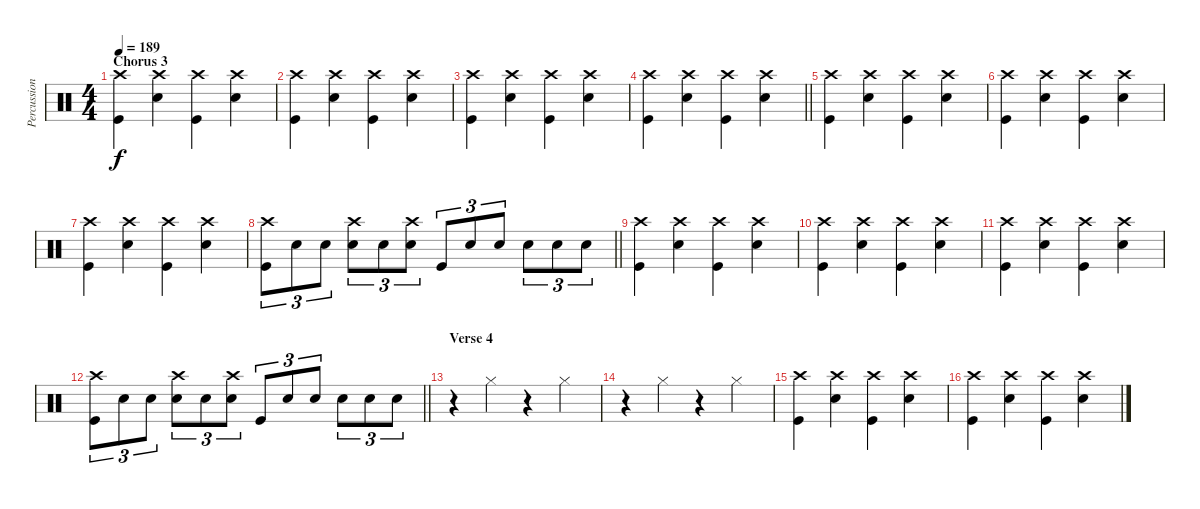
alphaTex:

\track ("Percussions" "Percussion") {instrument percussion}
\staff {score}
\articulation defaults
\ts (4 4)
\section ("" "Chorus 3")
\tempo 189
\clef neutral
\ks c
("Crash high (hit)" "Kick (hit)").4{dy f} ("Crash high (hit)" "Snare (hit) 2").4 ("Crash high (hit)" "Kick (hit)").4 ("Crash high (hit)" "Snare (hit) 2").4 |
("Crash high (hit)" "Kick (hit)").4 ("Crash high (hit)" "Snare (hit) 2").4 ("Crash high (hit)" "Kick (hit)").4 ("Crash high (hit)" "Snare (hit) 2").4 |
("Crash high (hit)" "Kick (hit)").4 ("Crash high (hit)" "Snare (hit) 2").4 ("Crash high (hit)" "Kick (hit)").4 ("Crash high (hit)" "Snare (hit) 2").4 |
\barLineRight lightlight
("Crash high (hit)" "Kick (hit)").4 ("Crash high (hit)" "Snare (hit) 2").4 ("Crash high (hit)" "Kick (hit)").4 ("Crash high (hit)" "Snare (hit) 2").4 |
("Crash high (hit)" "Kick (hit)").4 ("Crash high (hit)" "Snare (hit) 2").4 ("Crash high (hit)" "Kick (hit)").4 ("Crash high (hit)" "Snare (hit) 2").4 |
("Crash high (hit)" "Kick (hit)").4 ("Crash high (hit)" "Snare (hit) 2").4 ("Crash high (hit)" "Kick (hit)").4 ("Crash high (hit)" "Snare (hit) 2").4 |
("Crash high (hit)" "Kick (hit)").4 ("Crash high (hit)" "Snare (hit) 2").4 ("Crash high (hit)" "Kick (hit)").4 ("Crash high (hit)" "Snare (hit) 2").4 |
\barLineRight lightlight
("Crash high (hit)" "Kick (hit)").8{tu (3 2)} "Snare (hit) 2".8{tu (3 2)} "Snare (hit) 2".8{tu (3 2)} ("Crash high (hit)" "Snare (hit) 2").8{tu (3 2)} "Snare (hit) 2".8{tu (3 2)} ("Crash high (hit)" "Snare (hit) 2").8{tu (3 2)} "Kick (hit)".8{tu (3 2)} "Snare (hit) 2".8{tu (3 2)} "Snare (hit) 2".8{tu (3 2)} "Snare (hit) 2".8{tu (3 2)} "Snare (hit) 2".8{tu (3 2)} "Snare (hit) 2".8{tu (3 2)} |
("Crash high (hit)" "Kick (hit)").4 ("Crash high (hit)" "Snare (hit) 2").4 ("Crash high (hit)" "Kick (hit)").4 ("Crash high (hit)" "Snare (hit) 2").4 |
("Crash high (hit)" "Kick (hit)").4 ("Crash high (hit)" "Snare (hit) 2").4 ("Crash high (hit)" "Kick (hit)").4 ("Crash high (hit)" "Snare (hit) 2").4 |
("Crash high (hit)" "Kick (hit)").4 ("Crash high (hit)" "Snare (hit) 2").4 ("Crash high (hit)" "Kick (hit)").4 ("Crash high (hit)" "Snare (hit) 2").4 |
\barLineRight lightlight
("Crash high (hit)" "Kick (hit)").8{tu (3 2)} "Snare (hit) 2".8{tu (3 2)} "Snare (hit) 2".8{tu (3 2)} ("Crash high (hit)" "Snare (hit) 2").8{tu (3 2)} "Snare (hit) 2".8{tu (3 2)} ("Crash high (hit)" "Snare (hit) 2").8{tu (3 2)} "Kick (hit)".8{tu (3 2)} "Snare (hit) 2".8{tu (3 2)} "Snare (hit) 2".8{tu (3 2)} "Snare (hit) 2".8{tu (3 2)} "Snare (hit) 2".8{tu (3 2)} "Snare (hit) 2".8{tu (3 2)} |
\section ("" "Verse 4")
r.4 "Hi-Hat (closed)".4 r.4 "Hi-Hat (closed)".4 |
r.4 "Hi-Hat (closed)".4 r.4 "Hi-Hat (closed)".4 |
("Crash high (hit)" "Kick (hit)").4 ("Crash high (hit)" "Snare (hit) 2").4 ("Crash high (hit)" "Kick (hit)").4 ("Crash high (hit)" "Snare (hit) 2").4 |
("Crash high (hit)" "Kick (hit)").4 ("Crash high (hit)" "Snare (hit) 2").4 ("Crash high (hit)" "Kick (hit)").4 ("Crash high (hit)" "Snare (hit) 2").4
